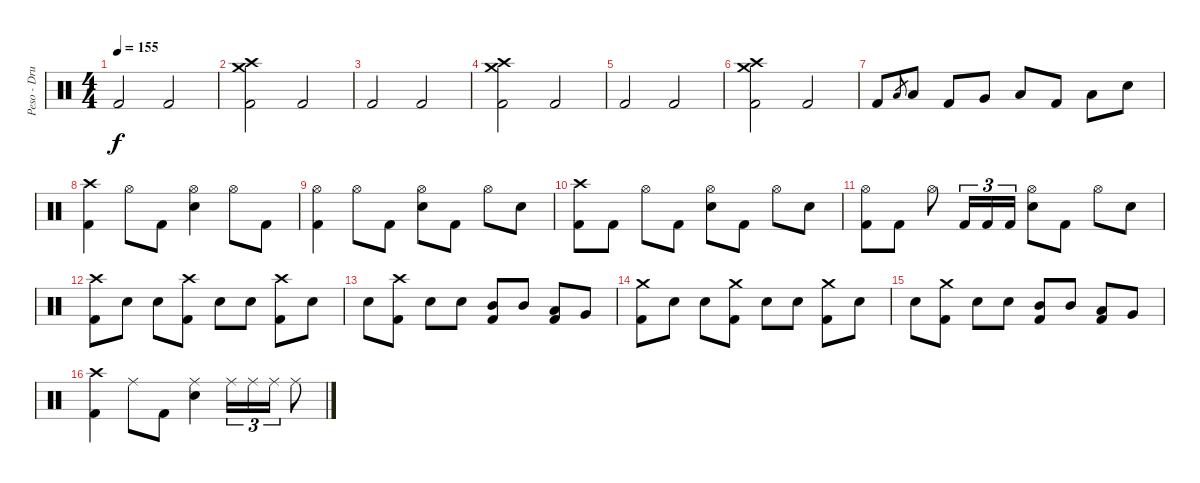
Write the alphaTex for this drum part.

\track ("Peso - Drums" "Peso - Dru") {instrument percussion}
\staff {score}
\articulation defaults
\ts (4 4)
\tempo 155
\clef neutral
\ks c "Kick (hit) 2".2{dy f} "Kick (hit) 2".2
|
("Crash high (hit)" "Crash medium (hit)" "Kick (hit) 2").2 "Kick (hit) 2".2 |
"Kick (hit) 2".2 "Kick (hit) 2".2 |
("Crash high (hit)" "Crash medium (hit)" "Kick (hit) 2").2 "Kick (hit) 2".2 |
"Kick (hit) 2".2 "Kick (hit) 2".2 |
("Crash high (hit)" "Crash medium (hit)" "Kick (hit) 2").2 "Kick (hit) 2".2 |
"Kick (hit) 2".8 "Low Tom (hit)".8{gr} "Low Tom (hit)".8 "Kick (hit) 2".8 "Very Low Tom (hit)".8 "Low Tom (hit)".8 "Kick (hit) 2".8 "Low Floor Tom (hit)".8 "Electric Snare (hit)".8 |
("Crash high (hit)" "Kick (hit) 2").4 "Hi-Hat (open)".8 "Kick (hit) 2".8 ("Hi-Hat (open)" "Electric Snare (hit)").4 "Hi-Hat (open)".8 "Kick (hit) 2".8 |
("Hi-Hat (open)" "Kick (hit) 2").4 "Hi-Hat (open)".8 "Kick (hit) 2".8 ("Hi-Hat (open)" "Electric Snare (hit)").8 "Kick (hit) 2".8 "Hi-Hat (open)".8 "Electric Snare (hit)".8 |
("Crash high (hit)" "Kick (hit) 2").8 "Kick (hit) 2".8 "Hi-Hat (open)".8 "Kick (hit) 2".8 ("Hi-Hat (open)" "Electric Snare (hit)").8 "Kick (hit) 2".8 "Hi-Hat (open)".8 "Electric Snare (hit)".8 |
("Hi-Hat (open)" "Kick (hit) 2").8 "Kick (hit) 2".8 "Hi-Hat (open)".8 "Kick (hit) 2".16{tu (3 2)} "Kick (hit) 2".16{tu (3 2)} "Kick (hit) 2".16{tu (3 2)} ("Hi-Hat (open)" "Electric Snare (hit)").8 "Kick (hit) 2".8 "Hi-Hat (open)".8 "Electric Snare (hit)".8 |
("Crash high (hit)" "Kick (hit) 2").8 "Electric Snare (hit)".8 "Electric Snare (hit)".8 ("Crash high (hit)" "Kick (hit) 2").8 "Electric Snare (hit)".8 "Electric Snare (hit)".8 ("Crash high (hit)" "Kick (hit) 2").8 "Electric Snare (hit)".8 |
"Electric Snare (hit)".8 ("Crash high (hit)" "Kick (hit) 2").8 "Electric Snare (hit)".8 "Electric Snare (hit)".8 ("Mid Tom (hit)" "Kick (hit) 2").8 "Mid Tom (hit)".8 ("Low Tom (hit)" "Kick (hit) 2").8 "Very Low Tom (hit)".8 |
("Crash medium (hit)" "Kick (hit) 2").8 "Electric Snare (hit)".8 "Electric Snare (hit)".8 ("Crash medium (hit)" "Kick (hit) 2").8 "Electric Snare (hit)".8 "Electric Snare (hit)".8 ("Crash medium (hit)" "Kick (hit) 2").8 "Electric Snare (hit)".8 |
"Electric Snare (hit)".8 ("Crash medium (hit)" "Kick (hit) 2").8 "Electric Snare (hit)".8 "Electric Snare (hit)".8 ("Mid Tom (hit)" "Kick (hit) 2").8 "Mid Tom (hit)".8 ("Low Tom (hit)" "Kick (hit) 2").8 "Very Low Tom (hit)".8 |
("Crash high (hit)" "Kick (hit) 2").4 "Ride (middle)".8 "Kick (hit) 2".8 ("Ride (middle)" "Electric Snare (hit)").4 "Ride (middle)".16{tu (3 2)} "Ride (middle)".16{tu (3 2)} "Ride (middle)".16{tu (3 2)} "Ride (middle)".8
